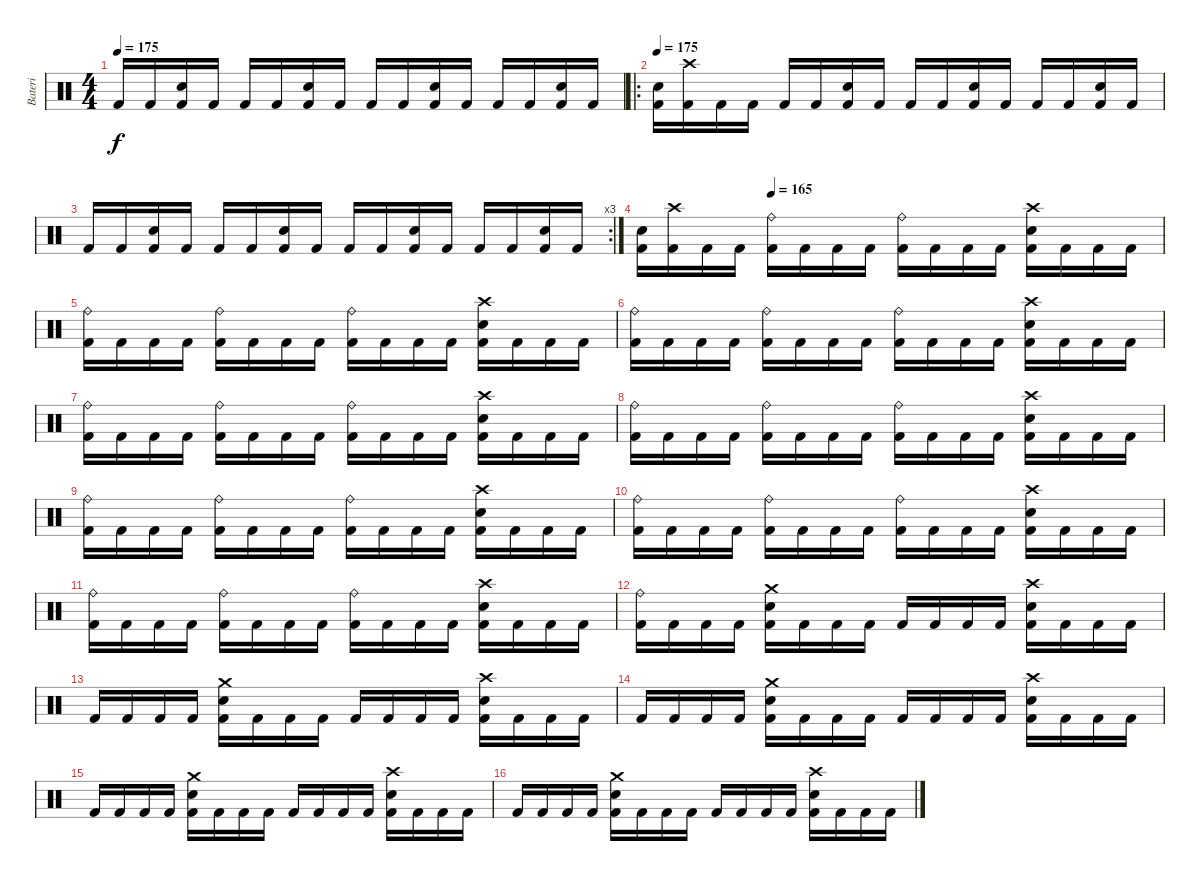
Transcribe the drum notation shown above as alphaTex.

\track ("Bateri" "Bateri") {instrument percussion}
\staff {score}
\articulation defaults
\ts (4 4)
\tempo 175
\clef neutral
\ks c "Kick (hit) 2".16{dy f} "Kick (hit) 2".16
("Snare (hit) 2" "Kick (hit) 2").16 "Kick (hit) 2".16 "Kick (hit) 2".16 "Kick (hit) 2".16 ("Snare (hit) 2" "Kick (hit) 2").16 "Kick (hit) 2".16 "Kick (hit) 2".16 "Kick (hit) 2".16 ("Snare (hit) 2" "Kick (hit) 2").16 "Kick (hit) 2".16 "Kick (hit) 2".16 "Kick (hit) 2".16 ("Snare (hit) 2" "Kick (hit) 2").16 "Kick (hit) 2".16 |
\ro
\tempo 175
("Snare (hit) 2" "Kick (hit) 2").16 ("Crash high (hit)" "Kick (hit) 2").16 "Kick (hit) 2".16 "Kick (hit) 2".16 "Kick (hit) 2".16 "Kick (hit) 2".16 ("Snare (hit) 2" "Kick (hit) 2").16 "Kick (hit) 2".16 "Kick (hit) 2".16 "Kick (hit) 2".16 ("Snare (hit) 2" "Kick (hit) 2").16 "Kick (hit) 2".16 "Kick (hit) 2".16 "Kick (hit) 2".16 ("Snare (hit) 2" "Kick (hit) 2").16 "Kick (hit) 2".16 |
\rc 3 "Kick (hit) 2".16 "Kick (hit) 2".16
("Snare (hit) 2" "Kick (hit) 2").16 "Kick (hit) 2".16 "Kick (hit) 2".16 "Kick (hit) 2".16 ("Snare (hit) 2" "Kick (hit) 2").16 "Kick (hit) 2".16 "Kick (hit) 2".16 "Kick (hit) 2".16 ("Snare (hit) 2" "Kick (hit) 2").16 "Kick (hit) 2".16 "Kick (hit) 2".16 "Kick (hit) 2".16 ("Snare (hit) 2" "Kick (hit) 2").16 "Kick (hit) 2".16 |
\section ("" "")
\tempo (165 0.25)
("Snare (hit) 2" "Kick (hit) 2").16 ("Crash high (hit)" "Kick (hit) 2").16 "Kick (hit) 2".16 "Kick (hit) 2".16 ("Ride (bell)" "Kick (hit) 2").16 "Kick (hit) 2".16 "Kick (hit) 2".16 "Kick (hit) 2".16 ("Ride (bell)" "Kick (hit) 2").16 "Kick (hit) 2".16 "Kick (hit) 2".16 "Kick (hit) 2".16 ("Snare (hit) 2" "Crash high (hit)" "Kick (hit) 2").16 "Kick (hit) 2".16 "Kick (hit) 2".16 "Kick (hit) 2".16 |
("Ride (bell)" "Kick (hit) 2").16 "Kick (hit) 2".16 "Kick (hit) 2".16 "Kick (hit) 2".16 ("Ride (bell)" "Kick (hit) 2").16 "Kick (hit) 2".16 "Kick (hit) 2".16 "Kick (hit) 2".16 ("Ride (bell)" "Kick (hit) 2").16 "Kick (hit) 2".16 "Kick (hit) 2".16 "Kick (hit) 2".16 ("Snare (hit) 2" "Crash high (hit)" "Kick (hit) 2").16 "Kick (hit) 2".16 "Kick (hit) 2".16 "Kick (hit) 2".16 |
("Ride (bell)" "Kick (hit) 2").16 "Kick (hit) 2".16 "Kick (hit) 2".16 "Kick (hit) 2".16 ("Ride (bell)" "Kick (hit) 2").16 "Kick (hit) 2".16 "Kick (hit) 2".16 "Kick (hit) 2".16 ("Ride (bell)" "Kick (hit) 2").16 "Kick (hit) 2".16 "Kick (hit) 2".16 "Kick (hit) 2".16 ("Snare (hit) 2" "Crash high (hit)" "Kick (hit) 2").16 "Kick (hit) 2".16 "Kick (hit) 2".16 "Kick (hit) 2".16 |
("Ride (bell)" "Kick (hit) 2").16 "Kick (hit) 2".16 "Kick (hit) 2".16 "Kick (hit) 2".16 ("Ride (bell)" "Kick (hit) 2").16 "Kick (hit) 2".16 "Kick (hit) 2".16 "Kick (hit) 2".16 ("Ride (bell)" "Kick (hit) 2").16 "Kick (hit) 2".16 "Kick (hit) 2".16 "Kick (hit) 2".16 ("Snare (hit) 2" "Crash high (hit)" "Kick (hit) 2").16 "Kick (hit) 2".16 "Kick (hit) 2".16 "Kick (hit) 2".16 |
("Ride (bell)" "Kick (hit) 2").16 "Kick (hit) 2".16 "Kick (hit) 2".16 "Kick (hit) 2".16 ("Ride (bell)" "Kick (hit) 2").16 "Kick (hit) 2".16 "Kick (hit) 2".16 "Kick (hit) 2".16 ("Ride (bell)" "Kick (hit) 2").16 "Kick (hit) 2".16 "Kick (hit) 2".16 "Kick (hit) 2".16 ("Snare (hit) 2" "Crash high (hit)" "Kick (hit) 2").16 "Kick (hit) 2".16 "Kick (hit) 2".16 "Kick (hit) 2".16 |
("Ride (bell)" "Kick (hit) 2").16 "Kick (hit) 2".16 "Kick (hit) 2".16 "Kick (hit) 2".16 ("Ride (bell)" "Kick (hit) 2").16 "Kick (hit) 2".16 "Kick (hit) 2".16 "Kick (hit) 2".16 ("Ride (bell)" "Kick (hit) 2").16 "Kick (hit) 2".16 "Kick (hit) 2".16 "Kick (hit) 2".16 ("Snare (hit) 2" "Crash high (hit)" "Kick (hit) 2").16 "Kick (hit) 2".16 "Kick (hit) 2".16 "Kick (hit) 2".16 |
("Ride (bell)" "Kick (hit) 2").16 "Kick (hit) 2".16 "Kick (hit) 2".16 "Kick (hit) 2".16 ("Ride (bell)" "Kick (hit) 2").16 "Kick (hit) 2".16 "Kick (hit) 2".16 "Kick (hit) 2".16 ("Ride (bell)" "Kick (hit) 2").16 "Kick (hit) 2".16 "Kick (hit) 2".16 "Kick (hit) 2".16 ("Snare (hit) 2" "Crash high (hit)" "Kick (hit) 2").16 "Kick (hit) 2".16 "Kick (hit) 2".16 "Kick (hit) 2".16 |
("Ride (bell)" "Kick (hit) 2").16 "Kick (hit) 2".16 "Kick (hit) 2".16 "Kick (hit) 2".16 ("Ride (bell)" "Kick (hit) 2").16 "Kick (hit) 2".16 "Kick (hit) 2".16 "Kick (hit) 2".16 ("Ride (bell)" "Kick (hit) 2").16 "Kick (hit) 2".16 "Kick (hit) 2".16 "Kick (hit) 2".16 ("Snare (hit) 2" "Crash high (hit)" "Kick (hit) 2").16 "Kick (hit) 2".16 "Kick (hit) 2".16 "Kick (hit) 2".16 |
("Ride (bell)" "Kick (hit) 2").16 "Kick (hit) 2".16 "Kick (hit) 2".16 "Kick (hit) 2".16 ("Crash medium (hit)" "Snare (hit) 2" "Kick (hit) 2").16 "Kick (hit) 2".16 "Kick (hit) 2".16 "Kick (hit) 2".16 "Kick (hit) 2".16 "Kick (hit) 2".16 "Kick (hit) 2".16 "Kick (hit) 2".16 ("Crash high (hit)" "Snare (hit) 2" "Kick (hit) 2").16 "Kick (hit) 2".16 "Kick (hit) 2".16 "Kick (hit) 2".16 |
"Kick (hit) 2".16 "Kick (hit) 2".16 "Kick (hit) 2".16 "Kick (hit) 2".16 ("Crash medium (hit)" "Snare (hit) 2" "Kick (hit) 2").16 "Kick (hit) 2".16 "Kick (hit) 2".16 "Kick (hit) 2".16 "Kick (hit) 2".16 "Kick (hit) 2".16 "Kick (hit) 2".16 "Kick (hit) 2".16 ("Crash high (hit)" "Snare (hit) 2" "Kick (hit) 2").16 "Kick (hit) 2".16 "Kick (hit) 2".16 "Kick (hit) 2".16 |
"Kick (hit) 2".16 "Kick (hit) 2".16 "Kick (hit) 2".16 "Kick (hit) 2".16 ("Crash medium (hit)" "Snare (hit) 2" "Kick (hit) 2").16 "Kick (hit) 2".16 "Kick (hit) 2".16 "Kick (hit) 2".16 "Kick (hit) 2".16 "Kick (hit) 2".16 "Kick (hit) 2".16 "Kick (hit) 2".16 ("Crash high (hit)" "Snare (hit) 2" "Kick (hit) 2").16 "Kick (hit) 2".16 "Kick (hit) 2".16 "Kick (hit) 2".16 |
"Kick (hit) 2".16 "Kick (hit) 2".16 "Kick (hit) 2".16 "Kick (hit) 2".16 ("Crash medium (hit)" "Snare (hit) 2" "Kick (hit) 2").16 "Kick (hit) 2".16 "Kick (hit) 2".16 "Kick (hit) 2".16 "Kick (hit) 2".16 "Kick (hit) 2".16 "Kick (hit) 2".16 "Kick (hit) 2".16 ("Crash high (hit)" "Snare (hit) 2" "Kick (hit) 2").16 "Kick (hit) 2".16 "Kick (hit) 2".16 "Kick (hit) 2".16 |
"Kick (hit) 2".16 "Kick (hit) 2".16 "Kick (hit) 2".16 "Kick (hit) 2".16 ("Crash medium (hit)" "Snare (hit) 2" "Kick (hit) 2").16 "Kick (hit) 2".16 "Kick (hit) 2".16 "Kick (hit) 2".16 "Kick (hit) 2".16 "Kick (hit) 2".16 "Kick (hit) 2".16 "Kick (hit) 2".16 ("Crash high (hit)" "Snare (hit) 2" "Kick (hit) 2").16 "Kick (hit) 2".16 "Kick (hit) 2".16 "Kick (hit) 2".16
